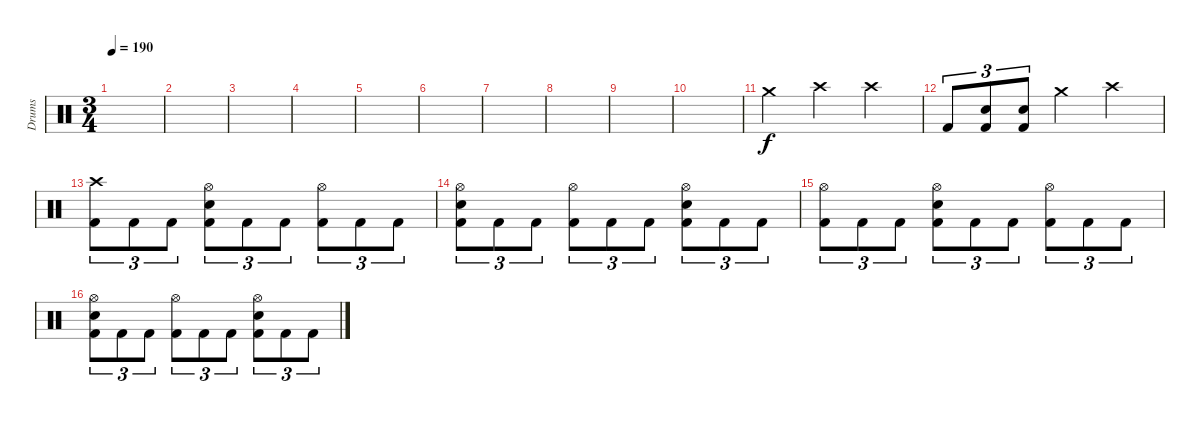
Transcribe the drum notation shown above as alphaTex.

\track ("Drums" "Drums") {instrument percussion}
\staff {score}
\articulation defaults
\ts (3 4)
\tempo 190
\clef neutral
\ks c
|
|
|
|
|
|
|
|
|
|
"Crash medium (hit)".4 "Crash high (hit)".4 "Crash high (hit)".4 |
"Kick (hit) 2".8{tu (3 2)} ("Kick (hit) 2" "Electric Snare (hit)").8{tu (3 2)} ("Kick (hit) 2" "Electric Snare (hit)").8{tu (3 2)} "Crash medium (hit)".4 "Crash high (hit)".4 |
("Kick (hit) 2" "Crash high (hit)").8{tu (3 2)} "Kick (hit) 2".8{tu (3 2)} "Kick (hit) 2".8{tu (3 2)} ("Kick (hit) 2" "Electric Snare (hit)" "Hi-Hat (open)").8{tu (3 2)} "Kick (hit) 2".8{tu (3 2)} "Kick (hit) 2".8{tu (3 2)} ("Kick (hit) 2" "Hi-Hat (open)").8{tu (3 2)} "Kick (hit) 2".8{tu (3 2)} "Kick (hit) 2".8{tu (3 2)} |
("Kick (hit) 2" "Electric Snare (hit)" "Hi-Hat (open)").8{tu (3 2)} "Kick (hit) 2".8{tu (3 2)} "Kick (hit) 2".8{tu (3 2)} ("Kick (hit) 2" "Hi-Hat (open)").8{tu (3 2)} "Kick (hit) 2".8{tu (3 2)} "Kick (hit) 2".8{tu (3 2)} ("Kick (hit) 2" "Electric Snare (hit)" "Hi-Hat (open)").8{tu (3 2)} "Kick (hit) 2".8{tu (3 2)} "Kick (hit) 2".8{tu (3 2)} |
("Kick (hit) 2" "Hi-Hat (open)").8{tu (3 2)} "Kick (hit) 2".8{tu (3 2)} "Kick (hit) 2".8{tu (3 2)} ("Kick (hit) 2" "Electric Snare (hit)" "Hi-Hat (open)").8{tu (3 2)} "Kick (hit) 2".8{tu (3 2)} "Kick (hit) 2".8{tu (3 2)} ("Kick (hit) 2" "Hi-Hat (open)").8{tu (3 2)} "Kick (hit) 2".8{tu (3 2)} "Kick (hit) 2".8{tu (3 2)} |
("Kick (hit) 2" "Electric Snare (hit)" "Hi-Hat (open)").8{tu (3 2)} "Kick (hit) 2".8{tu (3 2)} "Kick (hit) 2".8{tu (3 2)} ("Kick (hit) 2" "Hi-Hat (open)").8{tu (3 2)} "Kick (hit) 2".8{tu (3 2)} "Kick (hit) 2".8{tu (3 2)} ("Kick (hit) 2" "Electric Snare (hit)" "Hi-Hat (open)").8{tu (3 2)} "Kick (hit) 2".8{tu (3 2)} "Kick (hit) 2".8{tu (3 2)}
